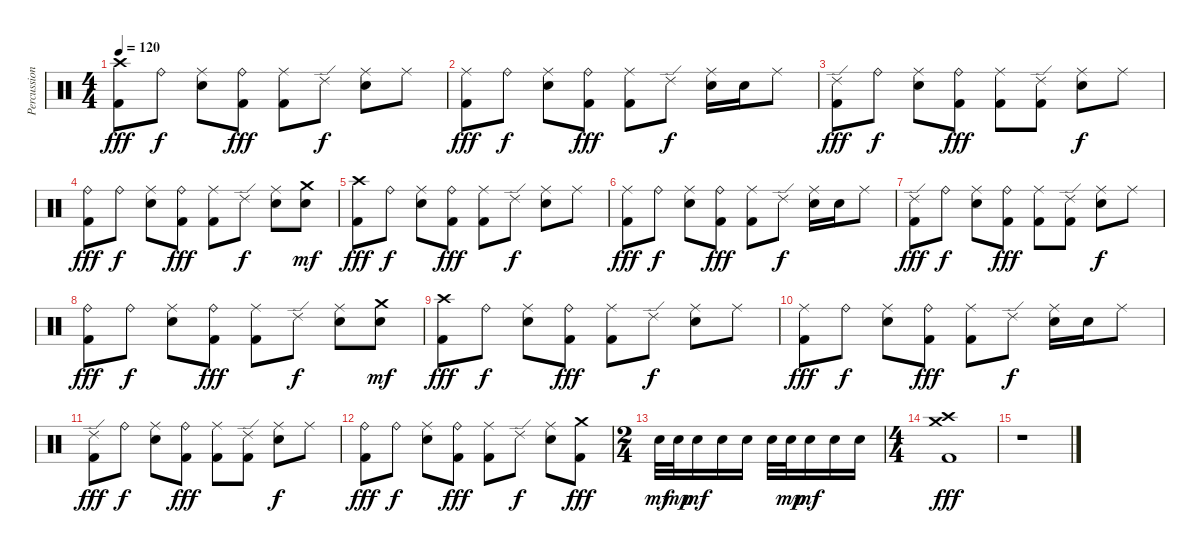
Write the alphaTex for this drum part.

\track ("Percussion" "Percussion") {instrument percussion}
\staff {score}
\articulation defaults
\ts (4 4)
\tempo 120
\clef neutral
\ks c
("Crash high (hit)" "Kick (hit) 2").8{dy fff} "Ride (bell)".8{dy f} ("Ride (middle)" "Electric Snare (hit)").8 ("Ride (bell)" "Kick (hit) 2").8{dy fff} ("Ride (middle)" "Kick (hit) 2").8 "Ride (edge) 2".8{dy f} ("Ride (middle)" "Electric Snare (hit)").8 "Ride (middle)".8 |
("Ride (middle)" "Kick (hit) 2").8{dy fff} "Ride (bell)".8{dy f} ("Ride (middle)" "Electric Snare (hit)").8 ("Ride (bell)" "Kick (hit) 2").8{dy fff} ("Ride (middle)" "Kick (hit) 2").8 "Ride (edge) 2".8{dy f} ("Ride (middle)" "Electric Snare (hit)").16 "Electric Snare (hit)".16 "Ride (middle)".8 |
("Ride (edge) 2" "Kick (hit) 2").8{dy fff} "Ride (bell)".8{dy f} ("Ride (middle)" "Electric Snare (hit)").8 ("Ride (bell)" "Kick (hit) 2").8{dy fff} ("Ride (middle)" "Kick (hit) 2").8 ("Ride (edge) 2" "Kick (hit) 2").8 ("Ride (middle)" "Electric Snare (hit)").8{dy f} "Ride (middle)".8 |
("Ride (bell)" "Kick (hit) 2").8{dy fff} "Ride (bell)".8{dy f} ("Ride (middle)" "Electric Snare (hit)").8 ("Ride (bell)" "Kick (hit) 2").8{dy fff} ("Ride (middle)" "Kick (hit) 2").8 "Ride (edge) 2".8{dy f} ("Ride (middle)" "Electric Snare (hit)").8 ("Crash medium (hit)" "Electric Snare (hit)").8{dy mf} |
("Crash high (hit)" "Kick (hit) 2").8{dy fff} "Ride (bell)".8{dy f} ("Ride (middle)" "Electric Snare (hit)").8 ("Ride (bell)" "Kick (hit) 2").8{dy fff} ("Ride (middle)" "Kick (hit) 2").8 "Ride (edge) 2".8{dy f} ("Ride (middle)" "Electric Snare (hit)").8 "Ride (middle)".8 |
("Ride (middle)" "Kick (hit) 2").8{dy fff} "Ride (bell)".8{dy f} ("Ride (middle)" "Electric Snare (hit)").8 ("Ride (bell)" "Kick (hit) 2").8{dy fff} ("Ride (middle)" "Kick (hit) 2").8 "Ride (edge) 2".8{dy f} ("Ride (middle)" "Electric Snare (hit)").16 "Electric Snare (hit)".16 "Ride (middle)".8 |
("Ride (edge) 2" "Kick (hit) 2").8{dy fff} "Ride (bell)".8{dy f} ("Ride (middle)" "Electric Snare (hit)").8 ("Ride (bell)" "Kick (hit) 2").8{dy fff} ("Ride (middle)" "Kick (hit) 2").8 ("Ride (edge) 2" "Kick (hit) 2").8 ("Ride (middle)" "Electric Snare (hit)").8{dy f} "Ride (middle)".8 |
("Ride (bell)" "Kick (hit) 2").8{dy fff} "Ride (bell)".8{dy f} ("Ride (middle)" "Electric Snare (hit)").8 ("Ride (bell)" "Kick (hit) 2").8{dy fff} ("Ride (middle)" "Kick (hit) 2").8 "Ride (edge) 2".8{dy f} ("Ride (middle)" "Electric Snare (hit)").8 ("Crash medium (hit)" "Electric Snare (hit)").8{dy mf} |
("Crash high (hit)" "Kick (hit) 2").8{dy fff} "Ride (bell)".8{dy f} ("Ride (middle)" "Electric Snare (hit)").8 ("Ride (bell)" "Kick (hit) 2").8{dy fff} ("Ride (middle)" "Kick (hit) 2").8 "Ride (edge) 2".8{dy f} ("Ride (middle)" "Electric Snare (hit)").8 "Ride (middle)".8 |
("Ride (middle)" "Kick (hit) 2").8{dy fff} "Ride (bell)".8{dy f} ("Ride (middle)" "Electric Snare (hit)").8 ("Ride (bell)" "Kick (hit) 2").8{dy fff} ("Ride (middle)" "Kick (hit) 2").8 "Ride (edge) 2".8{dy f} ("Ride (middle)" "Electric Snare (hit)").16 "Electric Snare (hit)".16 "Ride (middle)".8 |
("Ride (edge) 2" "Kick (hit) 2").8{dy fff} "Ride (bell)".8{dy f} ("Ride (middle)" "Electric Snare (hit)").8 ("Ride (bell)" "Kick (hit) 2").8{dy fff} ("Ride (middle)" "Kick (hit) 2").8 ("Ride (edge) 2" "Kick (hit) 2").8 ("Ride (middle)" "Electric Snare (hit)").8{dy f} "Ride (middle)".8 |
("Ride (bell)" "Kick (hit) 2").8{dy fff} "Ride (bell)".8{dy f} ("Ride (middle)" "Electric Snare (hit)").8 ("Ride (bell)" "Kick (hit) 2").8{dy fff} ("Ride (middle)" "Kick (hit) 2").8 "Ride (edge) 2".8{dy f} ("Ride (middle)" "Electric Snare (hit)").8 ("Crash medium (hit)" "Kick (hit) 2").8{dy fff} |
\ts (2 4)
"Electric Snare (hit)".32{dy mf} "Electric Snare (hit)".32{dy mp} "Electric Snare (hit)".16{dy mf} "Electric Snare (hit)".16 "Electric Snare (hit)".16 "Electric Snare (hit)".32 "Electric Snare (hit)".32{dy mp} "Electric Snare (hit)".16{dy mf} "Electric Snare (hit)".16 "Electric Snare (hit)".16 |
\ts (4 4)
("Crash medium (hit)" "Crash high (hit)" "Kick (hit) 2").1{dy fff} |
r.1
